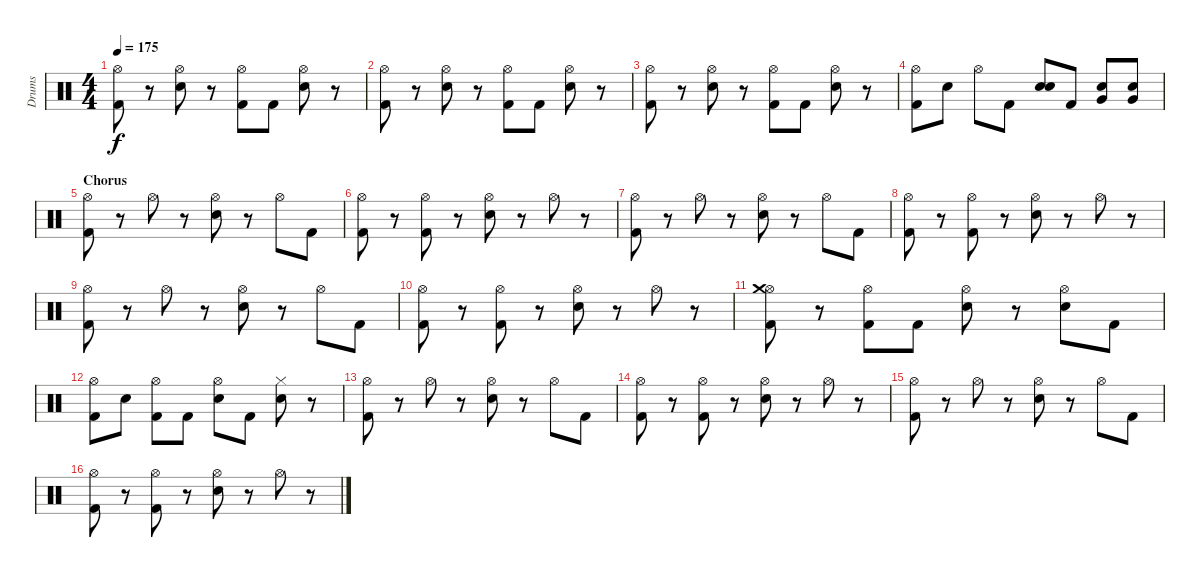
\track ("Drums" "Drums") {instrument percussion}
\staff {score}
\articulation defaults
\ts (4 4)
\tempo 175
\clef neutral
\ks c
("Kick (hit) 2" "Hi-Hat (open)").8{dy f} r.8 ("Electric Snare (hit)" "Hi-Hat (open)").8 r.8 ("Kick (hit) 2" "Hi-Hat (open)").8 "Kick (hit) 2".8 ("Electric Snare (hit)" "Hi-Hat (open)").8 r.8 |
("Kick (hit) 2" "Hi-Hat (open)").8 r.8 ("Electric Snare (hit)" "Hi-Hat (open)").8 r.8 ("Kick (hit) 2" "Hi-Hat (open)").8 "Kick (hit) 2".8 ("Electric Snare (hit)" "Hi-Hat (open)").8 r.8 |
("Kick (hit) 2" "Hi-Hat (open)").8 r.8 ("Electric Snare (hit)" "Hi-Hat (open)").8 r.8 ("Kick (hit) 2" "Hi-Hat (open)").8 "Kick (hit) 2".8 ("Electric Snare (hit)" "Hi-Hat (open)").8 r.8 |
("Kick (hit) 2" "Hi-Hat (open)").8 "Electric Snare (hit)".8 "Hi-Hat (open)".8 "Kick (hit) 2".8 ("Electric Snare (hit)" "Electric Snare (hit)").8 "Kick (hit) 2".8 ("Electric Snare (hit)" "Very Low Tom (hit)").8 ("Electric Snare (hit)" "Very Low Tom (hit)").8 |
\section ("" "Chorus")
("Kick (hit) 2" "Hi-Hat (open)").8 r.8 "Hi-Hat (open)".8 r.8 ("Electric Snare (hit)" "Hi-Hat (open)").8 r.8 "Hi-Hat (open)".8 "Kick (hit) 2".8 |
("Kick (hit) 2" "Hi-Hat (open)").8 r.8 ("Kick (hit) 2" "Hi-Hat (open)").8 r.8 ("Electric Snare (hit)" "Hi-Hat (open)").8 r.8 "Hi-Hat (open)".8 r.8 |
("Kick (hit) 2" "Hi-Hat (open)").8 r.8 "Hi-Hat (open)".8 r.8 ("Electric Snare (hit)" "Hi-Hat (open)").8 r.8 "Hi-Hat (open)".8 "Kick (hit) 2".8 |
("Kick (hit) 2" "Hi-Hat (open)").8 r.8 ("Kick (hit) 2" "Hi-Hat (open)").8 r.8 ("Electric Snare (hit)" "Hi-Hat (open)").8 r.8 "Hi-Hat (open)".8 r.8 |
("Kick (hit) 2" "Hi-Hat (open)").8 r.8 "Hi-Hat (open)".8 r.8 ("Electric Snare (hit)" "Hi-Hat (open)").8 r.8 "Hi-Hat (open)".8 "Kick (hit) 2".8 |
("Kick (hit) 2" "Hi-Hat (open)").8 r.8 ("Kick (hit) 2" "Hi-Hat (open)").8 r.8 ("Electric Snare (hit)" "Hi-Hat (open)").8 r.8 "Hi-Hat (open)".8 r.8 |
("Kick (hit) 2" "Hi-Hat (open)" "Crash medium (hit)").8 r.8 ("Kick (hit) 2" "Hi-Hat (open)").8 "Kick (hit) 2".8 ("Electric Snare (hit)" "Hi-Hat (open)").8 r.8 ("Electric Snare (hit)" "Hi-Hat (open)").8 "Kick (hit) 2".8 |
("Kick (hit) 2" "Hi-Hat (open)").8 "Electric Snare (hit)".8 ("Kick (hit) 2" "Hi-Hat (open)").8 "Kick (hit) 2".8 ("Electric Snare (hit)" "Hi-Hat (open)").8 "Kick (hit) 2".8 ("Electric Snare (hit)" "Hi-Hat (closed)").8 r.8 |
("Kick (hit) 2" "Hi-Hat (open)").8 r.8 "Hi-Hat (open)".8 r.8 ("Electric Snare (hit)" "Hi-Hat (open)").8 r.8 "Hi-Hat (open)".8 "Kick (hit) 2".8 |
("Kick (hit) 2" "Hi-Hat (open)").8 r.8 ("Kick (hit) 2" "Hi-Hat (open)").8 r.8 ("Electric Snare (hit)" "Hi-Hat (open)").8 r.8 "Hi-Hat (open)".8 r.8 |
("Kick (hit) 2" "Hi-Hat (open)").8 r.8 "Hi-Hat (open)".8 r.8 ("Electric Snare (hit)" "Hi-Hat (open)").8 r.8 "Hi-Hat (open)".8 "Kick (hit) 2".8 |
("Kick (hit) 2" "Hi-Hat (open)").8 r.8 ("Kick (hit) 2" "Hi-Hat (open)").8 r.8 ("Electric Snare (hit)" "Hi-Hat (open)").8 r.8 "Hi-Hat (open)".8 r.8
